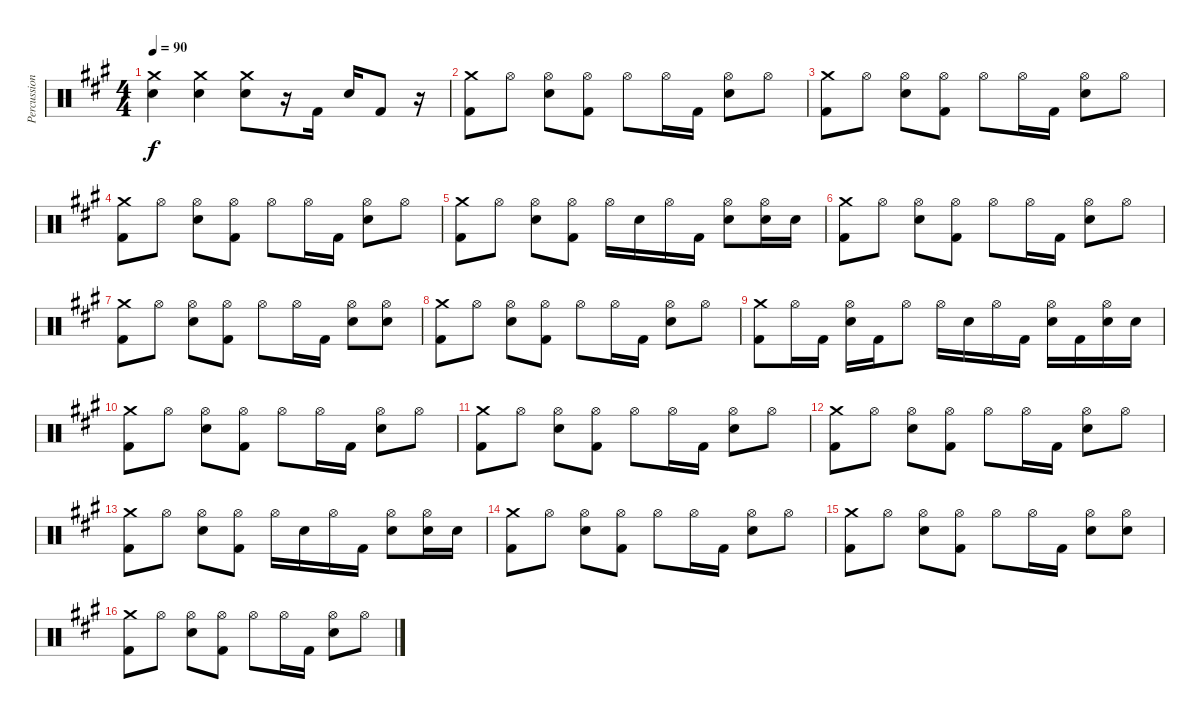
\track ("Percussion" "Percussion") {instrument percussion}
\staff {score}
\articulation defaults
\ts (4 4)
\tempo 90
\clef neutral
\ks f#minor
("Crash medium (hit)" "Electric Snare (hit)").4{dy f} ("Crash medium (hit)" "Electric Snare (hit)").4 ("Crash medium (hit)" "Electric Snare (hit)").8 r.16 "Kick (hit) 2".16 "Electric Snare (hit)".16 "Kick (hit) 2".8 r.16 |
("Crash medium (hit)" "Kick (hit) 2").8 "Hi-Hat (open)".8 ("Hi-Hat (open)" "Electric Snare (hit)").8 ("Hi-Hat (open)" "Kick (hit) 2").8 "Hi-Hat (open)".8 "Hi-Hat (open)".16 "Kick (hit) 2".16 ("Hi-Hat (open)" "Electric Snare (hit)").8 "Hi-Hat (open)".8 |
("Crash medium (hit)" "Kick (hit) 2").8 "Hi-Hat (open)".8 ("Hi-Hat (open)" "Electric Snare (hit)").8 ("Hi-Hat (open)" "Kick (hit) 2").8 "Hi-Hat (open)".8 "Hi-Hat (open)".16 "Kick (hit) 2".16 ("Hi-Hat (open)" "Electric Snare (hit)").8 "Hi-Hat (open)".8 |
("Crash medium (hit)" "Kick (hit) 2").8 "Hi-Hat (open)".8 ("Hi-Hat (open)" "Electric Snare (hit)").8 ("Hi-Hat (open)" "Kick (hit) 2").8 "Hi-Hat (open)".8 "Hi-Hat (open)".16 "Kick (hit) 2".16 ("Hi-Hat (open)" "Electric Snare (hit)").8 "Hi-Hat (open)".8 |
("Crash medium (hit)" "Kick (hit) 2").8 "Hi-Hat (open)".8 ("Hi-Hat (open)" "Electric Snare (hit)").8 ("Hi-Hat (open)" "Kick (hit) 2").8 "Hi-Hat (open)".16 "Electric Snare (hit)".16 "Hi-Hat (open)".16 "Kick (hit) 2".16 ("Hi-Hat (open)" "Electric Snare (hit)").8 ("Hi-Hat (open)" "Electric Snare (hit)").16 "Electric Snare (hit)".16 |
("Crash medium (hit)" "Kick (hit) 2").8 "Hi-Hat (open)".8 ("Hi-Hat (open)" "Electric Snare (hit)").8 ("Hi-Hat (open)" "Kick (hit) 2").8 "Hi-Hat (open)".8 "Hi-Hat (open)".16 "Kick (hit) 2".16 ("Hi-Hat (open)" "Electric Snare (hit)").8 "Hi-Hat (open)".8 |
("Crash medium (hit)" "Kick (hit) 2").8 "Hi-Hat (open)".8 ("Hi-Hat (open)" "Electric Snare (hit)").8 ("Hi-Hat (open)" "Kick (hit) 2").8 "Hi-Hat (open)".8 "Hi-Hat (open)".16 "Kick (hit) 2".16 ("Hi-Hat (open)" "Electric Snare (hit)").8 ("Hi-Hat (open)" "Electric Snare (hit)").8 |
("Crash medium (hit)" "Kick (hit) 2").8 "Hi-Hat (open)".8 ("Hi-Hat (open)" "Electric Snare (hit)").8 ("Hi-Hat (open)" "Kick (hit) 2").8 "Hi-Hat (open)".8 "Hi-Hat (open)".16 "Kick (hit) 2".16 ("Hi-Hat (open)" "Electric Snare (hit)").8 "Hi-Hat (open)".8 |
("Crash medium (hit)" "Kick (hit) 2").8 "Hi-Hat (open)".16 "Kick (hit) 2".16 ("Hi-Hat (open)" "Electric Snare (hit)").16 "Kick (hit) 2".16 "Hi-Hat (open)".8 "Hi-Hat (open)".16 "Electric Snare (hit)".16 "Hi-Hat (open)".16 "Kick (hit) 2".16 ("Hi-Hat (open)" "Electric Snare (hit)").16 "Kick (hit) 2".16 ("Hi-Hat (open)" "Electric Snare (hit)").16 "Electric Snare (hit)".16 |
("Crash medium (hit)" "Kick (hit) 2").8 "Hi-Hat (open)".8 ("Hi-Hat (open)" "Electric Snare (hit)").8 ("Hi-Hat (open)" "Kick (hit) 2").8 "Hi-Hat (open)".8 "Hi-Hat (open)".16 "Kick (hit) 2".16 ("Hi-Hat (open)" "Electric Snare (hit)").8 "Hi-Hat (open)".8 |
("Crash medium (hit)" "Kick (hit) 2").8 "Hi-Hat (open)".8 ("Hi-Hat (open)" "Electric Snare (hit)").8 ("Hi-Hat (open)" "Kick (hit) 2").8 "Hi-Hat (open)".8 "Hi-Hat (open)".16 "Kick (hit) 2".16 ("Hi-Hat (open)" "Electric Snare (hit)").8 "Hi-Hat (open)".8 |
("Crash medium (hit)" "Kick (hit) 2").8 "Hi-Hat (open)".8 ("Hi-Hat (open)" "Electric Snare (hit)").8 ("Hi-Hat (open)" "Kick (hit) 2").8 "Hi-Hat (open)".8 "Hi-Hat (open)".16 "Kick (hit) 2".16 ("Hi-Hat (open)" "Electric Snare (hit)").8 "Hi-Hat (open)".8 |
("Crash medium (hit)" "Kick (hit) 2").8 "Hi-Hat (open)".8 ("Hi-Hat (open)" "Electric Snare (hit)").8 ("Hi-Hat (open)" "Kick (hit) 2").8 "Hi-Hat (open)".16 "Electric Snare (hit)".16 "Hi-Hat (open)".16 "Kick (hit) 2".16 ("Hi-Hat (open)" "Electric Snare (hit)").8 ("Hi-Hat (open)" "Electric Snare (hit)").16 "Electric Snare (hit)".16 |
("Crash medium (hit)" "Kick (hit) 2").8 "Hi-Hat (open)".8 ("Hi-Hat (open)" "Electric Snare (hit)").8 ("Hi-Hat (open)" "Kick (hit) 2").8 "Hi-Hat (open)".8 "Hi-Hat (open)".16 "Kick (hit) 2".16 ("Hi-Hat (open)" "Electric Snare (hit)").8 "Hi-Hat (open)".8 |
("Crash medium (hit)" "Kick (hit) 2").8 "Hi-Hat (open)".8 ("Hi-Hat (open)" "Electric Snare (hit)").8 ("Hi-Hat (open)" "Kick (hit) 2").8 "Hi-Hat (open)".8 "Hi-Hat (open)".16 "Kick (hit) 2".16 ("Hi-Hat (open)" "Electric Snare (hit)").8 ("Hi-Hat (open)" "Electric Snare (hit)").8 |
("Crash medium (hit)" "Kick (hit) 2").8 "Hi-Hat (open)".8 ("Hi-Hat (open)" "Electric Snare (hit)").8 ("Hi-Hat (open)" "Kick (hit) 2").8 "Hi-Hat (open)".8 "Hi-Hat (open)".16 "Kick (hit) 2".16 ("Hi-Hat (open)" "Electric Snare (hit)").8 "Hi-Hat (open)".8
